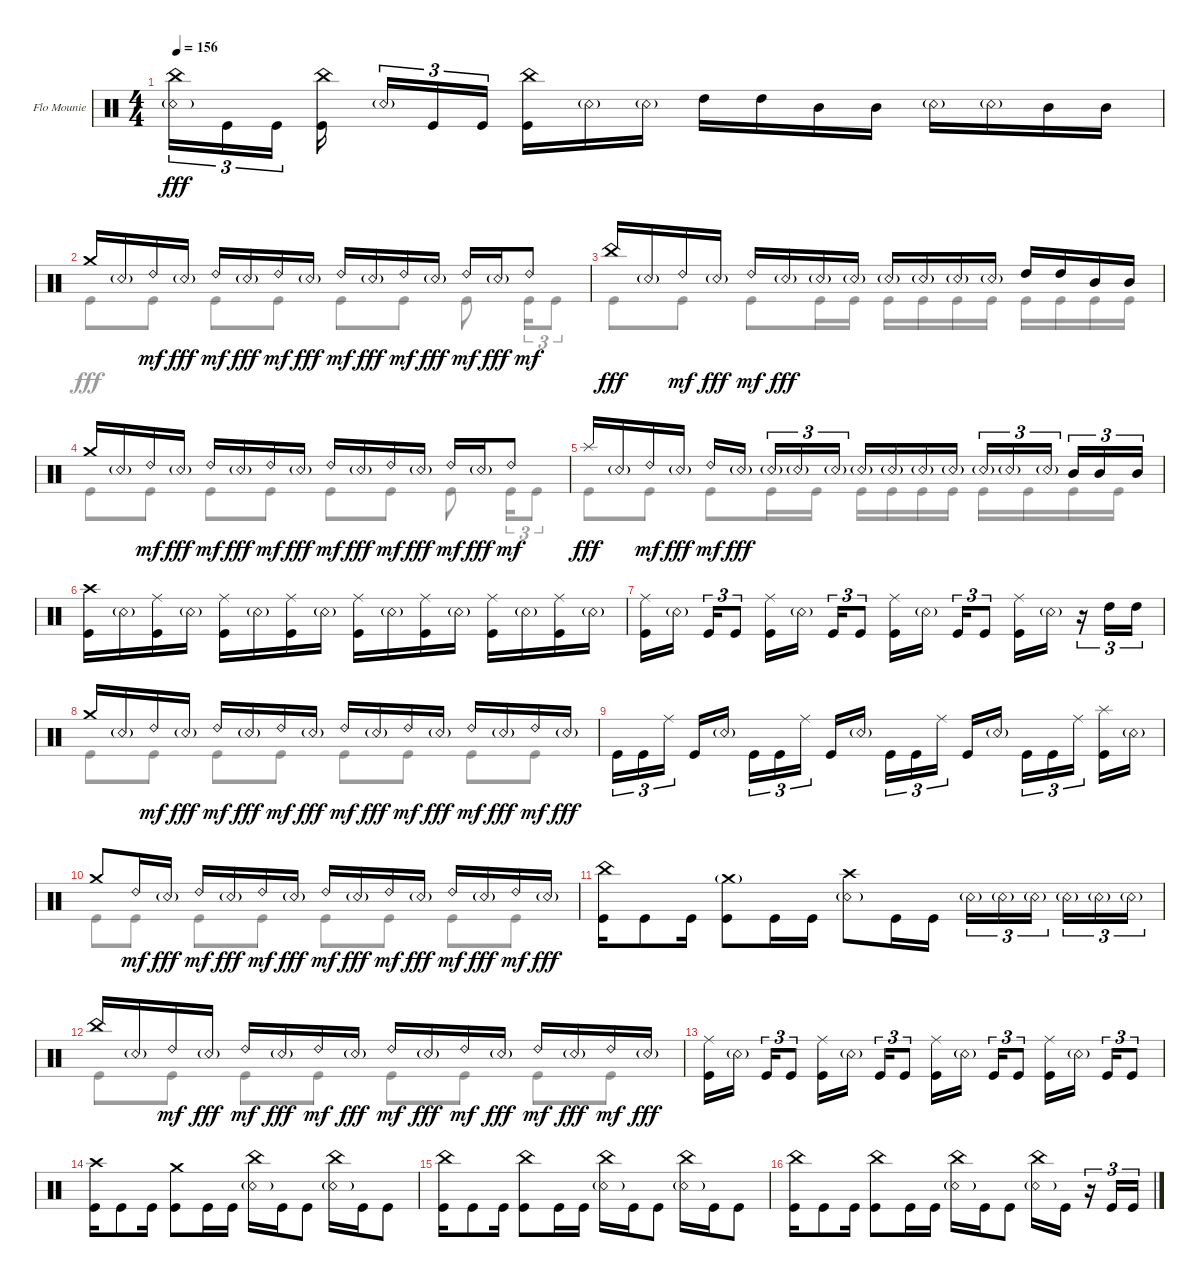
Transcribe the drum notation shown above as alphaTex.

\bracketExtendMode groupsimilarinstruments
\firstSystemTrackNameOrientation horizontal
\otherSystemsTrackNameOrientation horizontal
\track ("Flo Mounier" "Flo Mounie") {instrument percussion}
\staff {score}
\articulation defaults
\voice
\ts (4 4)
\tempo 156
\clef neutral
\ks c
("Snare (rim shot)"{g} "China (hit)").16{tu (3 2) dy fff} "Kick (hit)".16{tu (3 2)} "Kick (hit)".16{tu (3 2)} ("Kick (hit)" "China (hit)").16 "Snare (rim shot)"{g}.16{tu (3 2)} "Kick (hit)".16{tu (3 2)} "Kick (hit)".16{tu (3 2)} ("Kick (hit)" "China (hit)").16 "Snare (rim shot)"{g}.16 "Snare (rim shot)"{g}.16 "High Tom (hit)".16 "High Tom (hit)".16 "Mid Tom (hit)".16 "Mid Tom (hit)".16 "Snare (rim shot)"{g}.16 "Snare (rim shot)"{g}.16 "Mid Tom (hit)".16 "Mid Tom (hit)".16 |
"Crash medium (hit)".16 "Snare (rim shot)"{g}.16 "Ride (bell) 2".16{dy mf} "Snare (rim shot)"{g}.16{dy fff} "Ride (bell) 2".16{dy mf} "Snare (rim shot)"{g}.16{dy fff} "Ride (bell) 2".16{dy mf} "Snare (rim shot)"{g}.16{dy fff} "Ride (bell) 2".16{dy mf} "Snare (rim shot)"{g}.16{dy fff} "Ride (bell) 2".16{dy mf} "Snare (rim shot)"{g}.16{dy fff} "Ride (bell) 2".16{dy mf} "Snare (rim shot)"{g}.16{dy fff} "Ride (bell) 2".8{dy mf} |
"China (hit)".16{dy fff} "Snare (rim shot)"{g}.16 "Ride (bell) 2".16{dy mf} "Snare (rim shot)"{g}.16{dy fff} "Ride (bell) 2".16{dy mf} "Snare (rim shot)"{g}.16{dy fff} "Snare (rim shot)"{g}.16 "Snare (rim shot)"{g}.16 "Snare (rim shot)"{g}.16 "Snare (rim shot)"{g}.16 "Snare (rim shot)"{g}.16 "Snare (rim shot)"{g}.16 "High Tom (hit)".16 "High Tom (hit)".16 "Mid Tom (hit)".16 "Mid Tom (hit)".16 |
"Crash medium (hit)".16 "Snare (rim shot)"{g}.16 "Ride (bell) 2".16{dy mf} "Snare (rim shot)"{g}.16{dy fff} "Ride (bell) 2".16{dy mf} "Snare (rim shot)"{g}.16{dy fff} "Ride (bell) 2".16{dy mf} "Snare (rim shot)"{g}.16{dy fff} "Ride (bell) 2".16{dy mf} "Snare (rim shot)"{g}.16{dy fff} "Ride (bell) 2".16{dy mf} "Snare (rim shot)"{g}.16{dy fff} "Ride (bell) 2".16{dy mf} "Snare (rim shot)"{g}.16{dy fff} "Ride (bell) 2".8{dy mf} |
"Splash (hit)".16{dy fff} "Snare (rim shot)"{g}.16 "Ride (bell) 2".16{dy mf} "Snare (rim shot)"{g}.16{dy fff} "Ride (bell) 2".16{dy mf} "Snare (rim shot)"{g}.16{dy fff} "Snare (rim shot)"{g}.16{tu (3 2)} "Snare (rim shot)"{g}.16{tu (3 2)} "Snare (rim shot)"{g}.16{tu (3 2)} "Snare (rim shot)"{g}.16 "Snare (rim shot)"{g}.16 "Snare (rim shot)"{g}.16 "Snare (rim shot)"{g}.16 "Snare (rim shot)"{g}.16{tu (3 2)} "Snare (rim shot)"{g}.16{tu (3 2)} "Snare (rim shot)"{g}.16{tu (3 2)} "Mid Tom (hit)".16{tu (3 2)} "Mid Tom (hit)".16{tu (3 2)} "Mid Tom (hit)".16{tu (3 2)} |
("Kick (hit)" "Crash high (hit)").16 "Snare (rim shot)"{g}.16 ("Ride (middle)" "Kick (hit)").16 "Snare (rim shot)"{g}.16 ("Ride (middle)" "Kick (hit)").16 "Snare (rim shot)"{g}.16 ("Ride (middle)" "Kick (hit)").16 "Snare (rim shot)"{g}.16 ("Ride (middle)" "Kick (hit)").16 "Snare (rim shot)"{g}.16 ("Ride (middle)" "Kick (hit)").16 "Snare (rim shot)"{g}.16 ("Ride (middle)" "Kick (hit)").16 "Snare (rim shot)"{g}.16 ("Ride (middle)" "Kick (hit)").16 "Snare (rim shot)"{g}.16 |
("Kick (hit)" "Ride (middle)").16 "Snare (rim shot)"{g}.16 "Kick (hit)".16{tu (3 2)} "Kick (hit)".8{tu (3 2)} ("Kick (hit)" "Ride (middle)").16 "Snare (rim shot)"{g}.16 "Kick (hit)".16{tu (3 2)} "Kick (hit)".8{tu (3 2)} ("Kick (hit)" "Ride (middle)").16 "Snare (rim shot)"{g}.16 "Kick (hit)".16{tu (3 2)} "Kick (hit)".8{tu (3 2)} ("Kick (hit)" "Ride (middle)").16 "Snare (rim shot)"{g}.16 r.16{tu (3 2)} "High Tom (hit)".16{tu (3 2)} "High Tom (hit)".16{tu (3 2)} |
"Crash medium (hit)".16 "Snare (rim shot)"{g}.16 "Ride (bell) 2".16{dy mf} "Snare (rim shot)"{g}.16{dy fff} "Ride (bell) 2".16{dy mf} "Snare (rim shot)"{g}.16{dy fff} "Ride (bell) 2".16{dy mf} "Snare (rim shot)"{g}.16{dy fff} "Ride (bell) 2".16{dy mf} "Snare (rim shot)"{g}.16{dy fff} "Ride (bell) 2".16{dy mf} "Snare (rim shot)"{g}.16{dy fff} "Ride (bell) 2".16{dy mf} "Snare (rim shot)"{g}.16{dy fff} "Ride (bell) 2".16{dy mf} "Snare (rim shot)"{g}.16{dy fff} |
"Kick (hit)".16{tu (3 2)} "Kick (hit)".16{tu (3 2)} "Ride (middle)".16{tu (3 2)} "Kick (hit)".16 "Snare (rim shot)"{g}.16 "Kick (hit)".16{tu (3 2)} "Kick (hit)".16{tu (3 2)} "Ride (middle)".16{tu (3 2)} "Kick (hit)".16 "Snare (rim shot)"{g}.16 "Kick (hit)".16{tu (3 2)} "Kick (hit)".16{tu (3 2)} "Ride (middle)".16{tu (3 2)} "Kick (hit)".16 "Snare (rim shot)"{g}.16 "Kick (hit)".16{tu (3 2)} "Kick (hit)".16{tu (3 2)} "Ride (middle)".16{tu (3 2)} ("Kick (hit)" "Splash (hit)").16 "Snare (rim shot)"{g}.16 |
"Crash medium (hit)".8 "Ride (bell) 2".16{dy mf} "Snare (rim shot)"{g}.16{dy fff} "Ride (bell) 2".16{dy mf} "Snare (rim shot)"{g}.16{dy fff} "Ride (bell) 2".16{dy mf} "Snare (rim shot)"{g}.16{dy fff} "Ride (bell) 2".16{dy mf} "Snare (rim shot)"{g}.16{dy fff} "Ride (bell) 2".16{dy mf} "Snare (rim shot)"{g}.16{dy fff} "Ride (bell) 2".16{dy mf} "Snare (rim shot)"{g}.16{dy fff} "Ride (bell) 2".16{dy mf} "Snare (rim shot)"{g}.16{dy fff} |
("Kick (hit)" "China (hit)").16 "Kick (hit)".8 "Kick (hit)".16 ("Kick (hit)" "Crash medium (hit)"{g}).8 "Kick (hit)".16 "Kick (hit)".16 ("Snare (rim shot)"{g} "Crash high (hit)").8 "Kick (hit)".16 "Kick (hit)".16 "Snare (rim shot)"{g}.16{tu (3 2)} "Snare (rim shot)"{g}.16{tu (3 2)} "Snare (rim shot)"{g}.16{tu (3 2)} "Snare (rim shot)"{g}.16{tu (3 2)} "Snare (rim shot)"{g}.16{tu (3 2)} "Snare (rim shot)"{g}.16{tu (3 2)} |
"China (hit)".16 "Snare (rim shot)"{g}.16 "Ride (bell) 2".16{dy mf} "Snare (rim shot)"{g}.16{dy fff} "Ride (bell) 2".16{dy mf} "Snare (rim shot)"{g}.16{dy fff} "Ride (bell) 2".16{dy mf} "Snare (rim shot)"{g}.16{dy fff} "Ride (bell) 2".16{dy mf} "Snare (rim shot)"{g}.16{dy fff} "Ride (bell) 2".16{dy mf} "Snare (rim shot)"{g}.16{dy fff} "Ride (bell) 2".16{dy mf} "Snare (rim shot)"{g}.16{dy fff} "Ride (bell) 2".16{dy mf} "Snare (rim shot)"{g}.16{dy fff} |
("Kick (hit)" "Ride (middle)").16 "Snare (rim shot)"{g}.16 "Kick (hit)".16{tu (3 2)} "Kick (hit)".8{tu (3 2)} ("Kick (hit)" "Ride (middle)").16 "Snare (rim shot)"{g}.16 "Kick (hit)".16{tu (3 2)} "Kick (hit)".8{tu (3 2)} ("Kick (hit)" "Ride (middle)").16 "Snare (rim shot)"{g}.16 "Kick (hit)".16{tu (3 2)} "Kick (hit)".8{tu (3 2)} ("Kick (hit)" "Ride (middle)").16 "Snare (rim shot)"{g}.16 "Kick (hit)".16{tu (3 2)} "Kick (hit)".8{tu (3 2)} |
("Kick (hit)" "Crash high (hit)").16 "Kick (hit)".8 "Kick (hit)".16 ("Kick (hit)" "Crash medium (hit)").8 "Kick (hit)".16 "Kick (hit)".16 ("Snare (rim shot)"{g} "China (hit)").16 "Kick (hit)".16 "Kick (hit)".8 ("Snare (rim shot)"{g} "China (hit)").16 "Kick (hit)".16 "Kick (hit)".8 |
("Kick (hit)" "China (hit)").16 "Kick (hit)".8 "Kick (hit)".16 ("Kick (hit)" "China (hit)").8 "Kick (hit)".16 "Kick (hit)".16 ("Snare (rim shot)"{g} "China (hit)").16 "Kick (hit)".16 "Kick (hit)".8 ("Snare (rim shot)"{g} "China (hit)").16 "Kick (hit)".16 "Kick (hit)".8 |
("Kick (hit)" "China (hit)").16 "Kick (hit)".8 "Kick (hit)".16 ("Kick (hit)" "China (hit)").8 "Kick (hit)".16 "Kick (hit)".16 ("Snare (rim shot)"{g} "China (hit)").16 "Kick (hit)".16 "Kick (hit)".8 ("Snare (rim shot)"{g} "China (hit)").16 "Kick (hit)".16 r.16{tu (3 2)} "Kick (hit)".16{tu (3 2)} "Kick (hit)".16{tu (3 2)}
\voice
\clef neutral
\ottava regular
\simile none
\ks c
|
"Kick (hit)".8 "Kick (hit)".8 "Kick (hit)".8 "Kick (hit)".8 "Kick (hit)".8 "Kick (hit)".8 "Kick (hit)".8 "Kick (hit)".16{tu (3 2)} "Kick (hit)".8{tu (3 2)} |
"Kick (hit)".8 "Kick (hit)".8 "Kick (hit)".8 "Kick (hit)".16 "Kick (hit)".16 "Kick (hit)".16 "Kick (hit)".16 "Kick (hit)".16 "Kick (hit)".16 "Kick (hit)".16 "Kick (hit)".16 "Kick (hit)".16 "Kick (hit)".16 |
"Kick (hit)".8 "Kick (hit)".8 "Kick (hit)".8 "Kick (hit)".8 "Kick (hit)".8 "Kick (hit)".8 "Kick (hit)".8 "Kick (hit)".16{tu (3 2)} "Kick (hit)".8{tu (3 2)} |
"Kick (hit)".8 "Kick (hit)".8 "Kick (hit)".8 "Kick (hit)".16 "Kick (hit)".16 "Kick (hit)".16 "Kick (hit)".16 "Kick (hit)".16 "Kick (hit)".16 "Kick (hit)".16 "Kick (hit)".16 "Kick (hit)".16 "Kick (hit)".16 |
|
|
"Kick (hit)".8 "Kick (hit)".8 "Kick (hit)".8 "Kick (hit)".8 "Kick (hit)".8 "Kick (hit)".8 "Kick (hit)".8 "Kick (hit)".8 |
|
"Kick (hit)".8 "Kick (hit)".8 "Kick (hit)".8 "Kick (hit)".8 "Kick (hit)".8 "Kick (hit)".8 "Kick (hit)".8 "Kick (hit)".8 |
|
"Kick (hit)".8 "Kick (hit)".8 "Kick (hit)".8 "Kick (hit)".8 "Kick (hit)".8 "Kick (hit)".8 "Kick (hit)".8 "Kick (hit)".8 |
|
|
|
